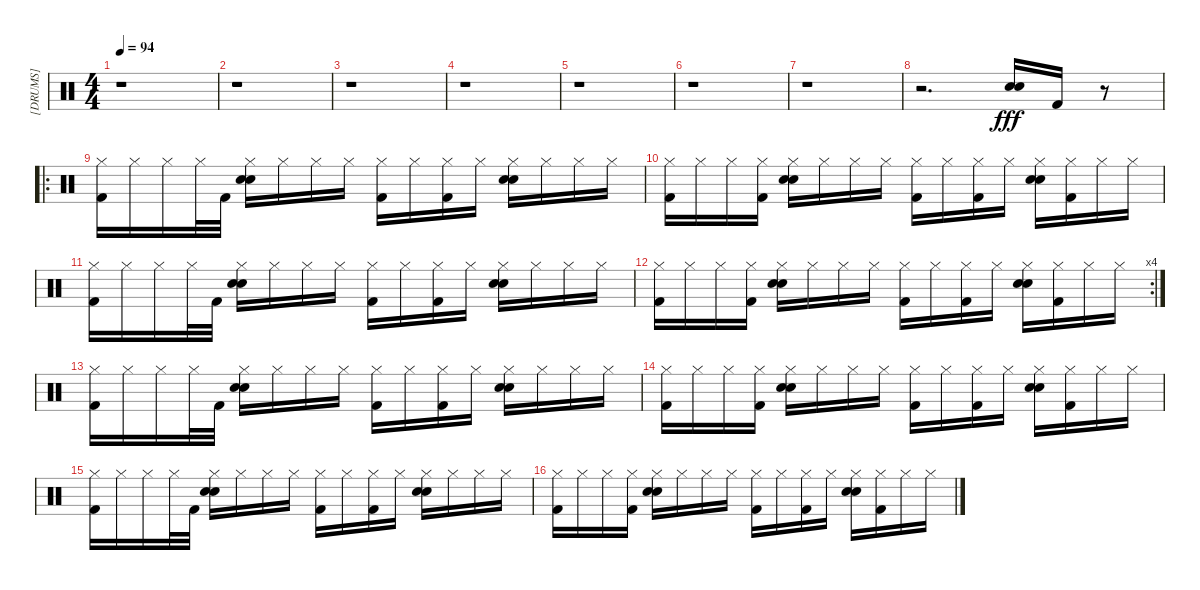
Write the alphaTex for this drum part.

\track ("[DRUMS]" "[DRUMS]") {instrument percussion}
\staff {score}
\articulation defaults
\ts (4 4)
\tempo 94
\clef neutral
\ks c
r.1{dy fff} |
r.1 |
r.1 |
r.1 |
r.1 |
r.1 |
r.1 |
r.2{d} ("Electric Snare (hit)" "Snare (hit) 2").16 "Kick (hit) 2".16 r.8 |
\ro
("Hi-Hat (closed)" "Kick (hit) 2").16 "Hi-Hat (closed)".16 "Hi-Hat (closed)".16 "Hi-Hat (closed)".32 "Kick (hit) 2".32 ("Hi-Hat (closed)" "Snare (hit) 2" "Electric Snare (hit)").16 "Hi-Hat (closed)".16 "Hi-Hat (closed)".16 "Hi-Hat (closed)".16 ("Hi-Hat (closed)" "Kick (hit) 2").16 "Hi-Hat (closed)".16 ("Hi-Hat (closed)" "Kick (hit) 2").16 "Hi-Hat (closed)".16 ("Hi-Hat (closed)" "Snare (hit) 2" "Electric Snare (hit)").16 "Hi-Hat (closed)".16 "Hi-Hat (closed)".16 "Hi-Hat (closed)".16 |
("Kick (hit) 2" "Hi-Hat (closed)").16 "Hi-Hat (closed)".16 "Hi-Hat (closed)".16 ("Kick (hit) 2" "Hi-Hat (closed)").16 ("Snare (hit) 2" "Electric Snare (hit)" "Hi-Hat (closed)").16 "Hi-Hat (closed)".16 "Hi-Hat (closed)".16 "Hi-Hat (closed)".16 ("Kick (hit) 2" "Hi-Hat (closed)").16 "Hi-Hat (closed)".16 ("Kick (hit) 2" "Hi-Hat (closed)").16 "Hi-Hat (closed)".16 ("Snare (hit) 2" "Electric Snare (hit)" "Hi-Hat (closed)").16 ("Kick (hit) 2" "Hi-Hat (closed)").16 "Hi-Hat (closed)".16 "Hi-Hat (closed)".16 |
("Hi-Hat (closed)" "Kick (hit) 2").16 "Hi-Hat (closed)".16 "Hi-Hat (closed)".16 "Hi-Hat (closed)".32 "Kick (hit) 2".32 ("Hi-Hat (closed)" "Snare (hit) 2" "Electric Snare (hit)").16 "Hi-Hat (closed)".16 "Hi-Hat (closed)".16 "Hi-Hat (closed)".16 ("Hi-Hat (closed)" "Kick (hit) 2").16 "Hi-Hat (closed)".16 ("Hi-Hat (closed)" "Kick (hit) 2").16 "Hi-Hat (closed)".16 ("Hi-Hat (closed)" "Snare (hit) 2" "Electric Snare (hit)").16 "Hi-Hat (closed)".16 "Hi-Hat (closed)".16 "Hi-Hat (closed)".16 |
\rc 4
("Kick (hit) 2" "Hi-Hat (closed)").16 "Hi-Hat (closed)".16 "Hi-Hat (closed)".16 ("Kick (hit) 2" "Hi-Hat (closed)").16 ("Snare (hit) 2" "Electric Snare (hit)" "Hi-Hat (closed)").16 "Hi-Hat (closed)".16 "Hi-Hat (closed)".16 "Hi-Hat (closed)".16 ("Kick (hit) 2" "Hi-Hat (closed)").16 "Hi-Hat (closed)".16 ("Kick (hit) 2" "Hi-Hat (closed)").16 "Hi-Hat (closed)".16 ("Snare (hit) 2" "Electric Snare (hit)" "Hi-Hat (closed)").16 ("Kick (hit) 2" "Hi-Hat (closed)").16 "Hi-Hat (closed)".16 "Hi-Hat (closed)".16 |
("Hi-Hat (closed)" "Kick (hit) 2").16 "Hi-Hat (closed)".16 "Hi-Hat (closed)".16 "Hi-Hat (closed)".32 "Kick (hit) 2".32 ("Hi-Hat (closed)" "Snare (hit) 2" "Electric Snare (hit)").16 "Hi-Hat (closed)".16 "Hi-Hat (closed)".16 "Hi-Hat (closed)".16 ("Hi-Hat (closed)" "Kick (hit) 2").16 "Hi-Hat (closed)".16 ("Hi-Hat (closed)" "Kick (hit) 2").16 "Hi-Hat (closed)".16 ("Hi-Hat (closed)" "Snare (hit) 2" "Electric Snare (hit)").16 "Hi-Hat (closed)".16 "Hi-Hat (closed)".16 "Hi-Hat (closed)".16 |
("Kick (hit) 2" "Hi-Hat (closed)").16 "Hi-Hat (closed)".16 "Hi-Hat (closed)".16 ("Kick (hit) 2" "Hi-Hat (closed)").16 ("Snare (hit) 2" "Electric Snare (hit)" "Hi-Hat (closed)").16 "Hi-Hat (closed)".16 "Hi-Hat (closed)".16 "Hi-Hat (closed)".16 ("Kick (hit) 2" "Hi-Hat (closed)").16 "Hi-Hat (closed)".16 ("Kick (hit) 2" "Hi-Hat (closed)").16 "Hi-Hat (closed)".16 ("Snare (hit) 2" "Electric Snare (hit)" "Hi-Hat (closed)").16 ("Kick (hit) 2" "Hi-Hat (closed)").16 "Hi-Hat (closed)".16 "Hi-Hat (closed)".16 |
("Hi-Hat (closed)" "Kick (hit) 2").16 "Hi-Hat (closed)".16 "Hi-Hat (closed)".16 "Hi-Hat (closed)".32 "Kick (hit) 2".32 ("Hi-Hat (closed)" "Snare (hit) 2" "Electric Snare (hit)").16 "Hi-Hat (closed)".16 "Hi-Hat (closed)".16 "Hi-Hat (closed)".16 ("Hi-Hat (closed)" "Kick (hit) 2").16 "Hi-Hat (closed)".16 ("Hi-Hat (closed)" "Kick (hit) 2").16 "Hi-Hat (closed)".16 ("Hi-Hat (closed)" "Snare (hit) 2" "Electric Snare (hit)").16 "Hi-Hat (closed)".16 "Hi-Hat (closed)".16 "Hi-Hat (closed)".16 |
("Kick (hit) 2" "Hi-Hat (closed)").16 "Hi-Hat (closed)".16 "Hi-Hat (closed)".16 ("Kick (hit) 2" "Hi-Hat (closed)").16 ("Snare (hit) 2" "Electric Snare (hit)" "Hi-Hat (closed)").16 "Hi-Hat (closed)".16 "Hi-Hat (closed)".16 "Hi-Hat (closed)".16 ("Kick (hit) 2" "Hi-Hat (closed)").16 "Hi-Hat (closed)".16 ("Kick (hit) 2" "Hi-Hat (closed)").16 "Hi-Hat (closed)".16 ("Snare (hit) 2" "Electric Snare (hit)" "Hi-Hat (closed)").16 ("Kick (hit) 2" "Hi-Hat (closed)").16 "Hi-Hat (closed)".16 "Hi-Hat (closed)".16
